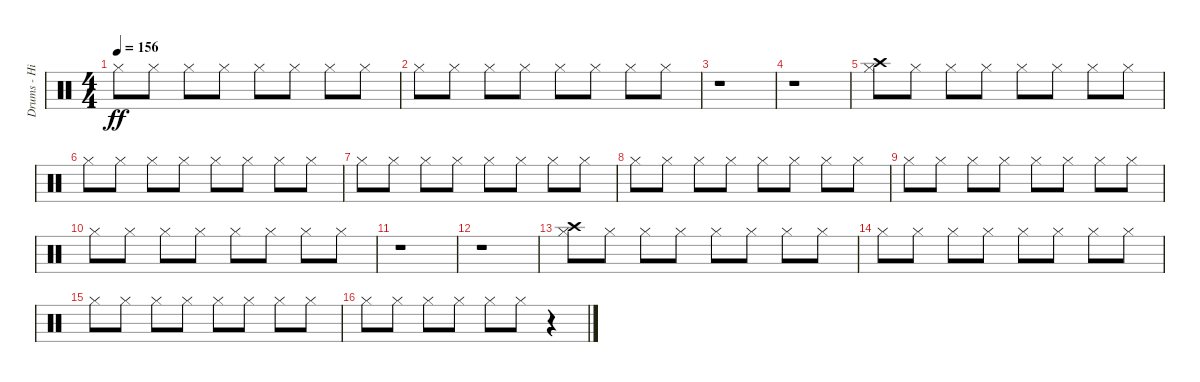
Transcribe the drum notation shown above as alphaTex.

\track ("Drums - Hi Hat/Cymbals" "Drums - Hi") {instrument percussion}
\staff {score}
\articulation defaults
\ts (4 4)
\tempo 156
\clef neutral
\ks c "Hi-Hat (closed)".8{dy ff} "Hi-Hat (closed)".8 "Hi-Hat (closed)".8 "Hi-Hat (closed)".8 "Hi-Hat (closed)".8 "Hi-Hat (closed)".8 "Hi-Hat (closed)".8 "Hi-Hat (closed)".8
|
"Hi-Hat (closed)".8 "Hi-Hat (closed)".8 "Hi-Hat (closed)".8 "Hi-Hat (closed)".8 "Hi-Hat (closed)".8 "Hi-Hat (closed)".8 "Hi-Hat (closed)".8 "Hi-Hat (closed)".8 |
r.1 |
r.1 |
("Hi-Hat (closed)" "Crash high (hit)").8 "Hi-Hat (closed)".8 "Hi-Hat (closed)".8 "Hi-Hat (closed)".8 "Hi-Hat (closed)".8 "Hi-Hat (closed)".8 "Hi-Hat (closed)".8 "Hi-Hat (closed)".8 |
"Hi-Hat (closed)".8 "Hi-Hat (closed)".8 "Hi-Hat (closed)".8 "Hi-Hat (closed)".8 "Hi-Hat (closed)".8 "Hi-Hat (closed)".8 "Hi-Hat (closed)".8 "Hi-Hat (closed)".8 |
"Hi-Hat (closed)".8 "Hi-Hat (closed)".8 "Hi-Hat (closed)".8 "Hi-Hat (closed)".8 "Hi-Hat (closed)".8 "Hi-Hat (closed)".8 "Hi-Hat (closed)".8 "Hi-Hat (closed)".8 |
"Hi-Hat (closed)".8 "Hi-Hat (closed)".8 "Hi-Hat (closed)".8 "Hi-Hat (closed)".8 "Hi-Hat (closed)".8 "Hi-Hat (closed)".8 "Hi-Hat (closed)".8 "Hi-Hat (closed)".8 |
"Hi-Hat (closed)".8 "Hi-Hat (closed)".8 "Hi-Hat (closed)".8 "Hi-Hat (closed)".8 "Hi-Hat (closed)".8 "Hi-Hat (closed)".8 "Hi-Hat (closed)".8 "Hi-Hat (closed)".8 |
"Hi-Hat (closed)".8 "Hi-Hat (closed)".8 "Hi-Hat (closed)".8 "Hi-Hat (closed)".8 "Hi-Hat (closed)".8 "Hi-Hat (closed)".8 "Hi-Hat (closed)".8 "Hi-Hat (closed)".8 |
r.1 |
r.1 |
("Hi-Hat (closed)" "Crash high (hit)").8 "Hi-Hat (closed)".8 "Hi-Hat (closed)".8 "Hi-Hat (closed)".8 "Hi-Hat (closed)".8 "Hi-Hat (closed)".8 "Hi-Hat (closed)".8 "Hi-Hat (closed)".8 |
"Hi-Hat (closed)".8 "Hi-Hat (closed)".8 "Hi-Hat (closed)".8 "Hi-Hat (closed)".8 "Hi-Hat (closed)".8 "Hi-Hat (closed)".8 "Hi-Hat (closed)".8 "Hi-Hat (closed)".8 |
"Hi-Hat (closed)".8 "Hi-Hat (closed)".8 "Hi-Hat (closed)".8 "Hi-Hat (closed)".8 "Hi-Hat (closed)".8 "Hi-Hat (closed)".8 "Hi-Hat (closed)".8 "Hi-Hat (closed)".8 |
"Hi-Hat (closed)".8 "Hi-Hat (closed)".8 "Hi-Hat (closed)".8 "Hi-Hat (closed)".8 "Hi-Hat (closed)".8 "Hi-Hat (closed)".8 r.4
